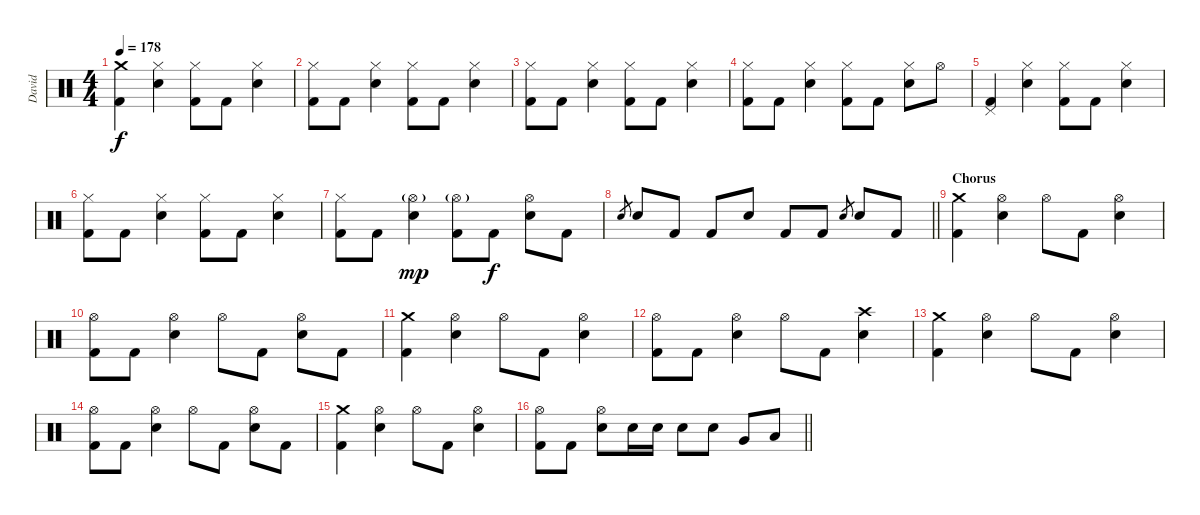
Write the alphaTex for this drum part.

\track ("David" "David") {instrument percussion}
\staff {score}
\articulation defaults
\ts (4 4)
\tempo 178
\clef neutral
\ks c
("Crash medium (hit)" "Kick (hit) 2").4{dy f} ("Hi-Hat (closed)" "Electric Snare (hit)").4 ("Hi-Hat (closed)" "Kick (hit) 2").8 "Kick (hit) 2".8 ("Hi-Hat (closed)" "Electric Snare (hit)").4 |
("Hi-Hat (closed)" "Kick (hit) 2").8 "Kick (hit) 2".8 ("Hi-Hat (closed)" "Electric Snare (hit)").4 ("Hi-Hat (closed)" "Kick (hit) 2").8 "Kick (hit) 2".8 ("Hi-Hat (closed)" "Electric Snare (hit)").4 |
("Hi-Hat (closed)" "Kick (hit) 2").8 "Kick (hit) 2".8 ("Hi-Hat (closed)" "Electric Snare (hit)").4 ("Hi-Hat (closed)" "Kick (hit) 2").8 "Kick (hit) 2".8 ("Hi-Hat (closed)" "Electric Snare (hit)").4 |
("Hi-Hat (closed)" "Kick (hit) 2").8 "Kick (hit) 2".8 ("Hi-Hat (closed)" "Electric Snare (hit)").4 ("Hi-Hat (closed)" "Kick (hit) 2").8 "Kick (hit) 2".8 ("Hi-Hat (closed)" "Electric Snare (hit)").8 "Hi-Hat (open)".8 |
("Pedal Hi-Hat (hit)" "Kick (hit) 2").4 ("Hi-Hat (closed)" "Electric Snare (hit)").4 ("Hi-Hat (closed)" "Kick (hit) 2").8 "Kick (hit) 2".8 ("Hi-Hat (closed)" "Electric Snare (hit)").4 |
("Hi-Hat (closed)" "Kick (hit) 2").8 "Kick (hit) 2".8 ("Hi-Hat (closed)" "Electric Snare (hit)").4 ("Hi-Hat (closed)" "Kick (hit) 2").8 "Kick (hit) 2".8 ("Hi-Hat (closed)" "Electric Snare (hit)").4 |
("Hi-Hat (closed)" "Kick (hit) 2").8 "Kick (hit) 2".8 ("Hi-Hat (open)"{g} "Electric Snare (hit)").4{dy mp} ("Hi-Hat (open)"{g} "Kick (hit) 2").8 "Kick (hit) 2".8{dy f} ("Hi-Hat (open)" "Electric Snare (hit)").8 "Kick (hit) 2".8 |
\barLineRight lightlight "Electric Snare (hit)".8{gr} "Electric Snare (hit)".8 "Kick (hit) 2".8 "Kick (hit) 2".8 "Electric Snare (hit)".8 "Kick (hit) 2".8 "Kick (hit) 2".8 "Electric Snare (hit)".8{gr} "Electric Snare (hit)".8 "Kick (hit) 2".8
|
\section ("" "Chorus")
("Crash medium (hit)" "Kick (hit) 2").4 ("Hi-Hat (open)" "Electric Snare (hit)").4 "Hi-Hat (open)".8 "Kick (hit) 2".8 ("Hi-Hat (open)" "Electric Snare (hit)").4 |
("Hi-Hat (open)" "Kick (hit) 2").8 "Kick (hit) 2".8 ("Hi-Hat (open)" "Electric Snare (hit)").4 "Hi-Hat (open)".8 "Kick (hit) 2".8 ("Hi-Hat (open)" "Electric Snare (hit)").8 "Kick (hit) 2".8 |
("Crash medium (hit)" "Kick (hit) 2").4 ("Hi-Hat (open)" "Electric Snare (hit)").4 "Hi-Hat (open)".8 "Kick (hit) 2".8 ("Hi-Hat (open)" "Electric Snare (hit)").4 |
("Hi-Hat (open)" "Kick (hit) 2").8 "Kick (hit) 2".8 ("Hi-Hat (open)" "Electric Snare (hit)").4 "Hi-Hat (open)".8 "Kick (hit) 2".8 ("Crash high (hit)" "Electric Snare (hit)").4 |
("Crash medium (hit)" "Kick (hit) 2").4 ("Hi-Hat (open)" "Electric Snare (hit)").4 "Hi-Hat (open)".8 "Kick (hit) 2".8 ("Hi-Hat (open)" "Electric Snare (hit)").4 |
("Hi-Hat (open)" "Kick (hit) 2").8 "Kick (hit) 2".8 ("Hi-Hat (open)" "Electric Snare (hit)").4 "Hi-Hat (open)".8 "Kick (hit) 2".8 ("Hi-Hat (open)" "Electric Snare (hit)").8 "Kick (hit) 2".8 |
("Crash medium (hit)" "Kick (hit) 2").4 ("Hi-Hat (open)" "Electric Snare (hit)").4 "Hi-Hat (open)".8 "Kick (hit) 2".8 ("Hi-Hat (open)" "Electric Snare (hit)").4 |
\barLineRight lightlight
("Hi-Hat (open)" "Kick (hit) 2").8 "Kick (hit) 2".8 ("Hi-Hat (open)" "Electric Snare (hit)").8 "Electric Snare (hit)".16 "Electric Snare (hit)".16 "Electric Snare (hit)".8 "Electric Snare (hit)".8 "Very Low Tom (hit)".8 "Low Tom (hit)".8
